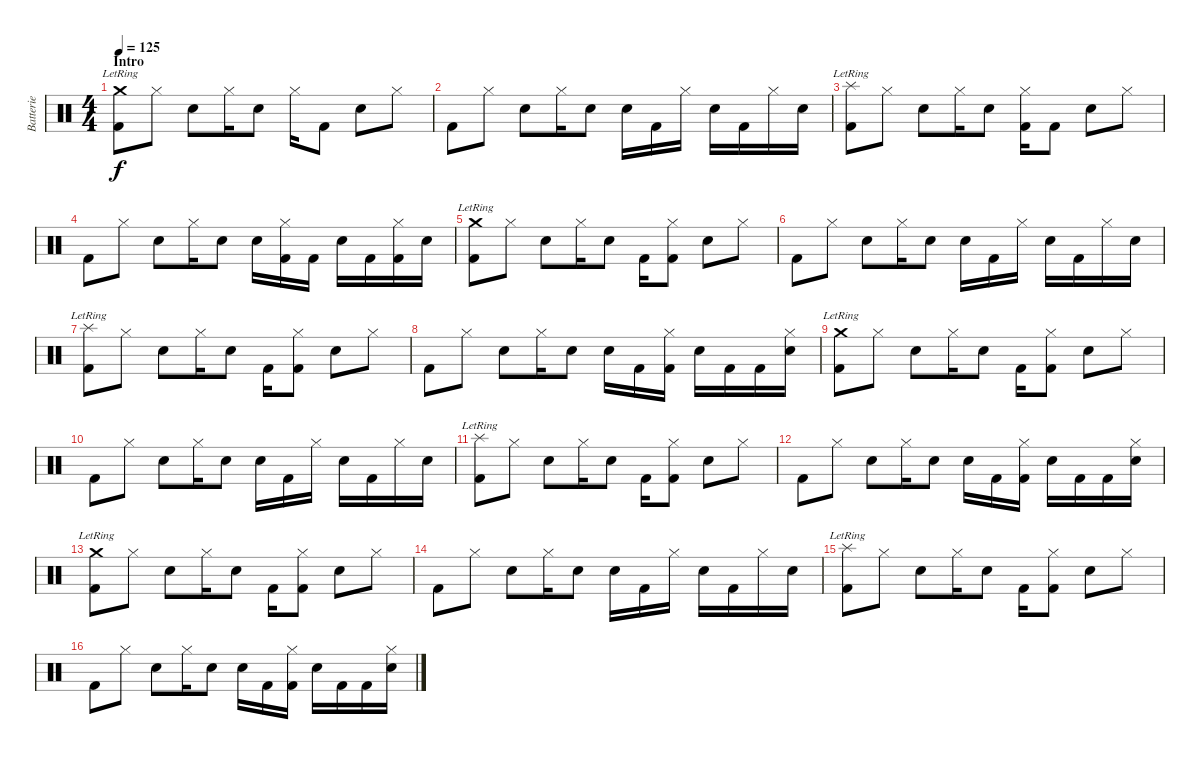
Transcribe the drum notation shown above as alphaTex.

\track ("Batterie" "Batterie") {instrument percussion}
\staff {score}
\articulation defaults
\ts (4 4)
\section ("" "Intro")
\tempo 125
\clef neutral
\ks c
("Crash medium (hit)"{lr} "Kick (hit) 2").8{dy f} "Hi-Hat (closed)".8 "Electric Snare (hit)".8 "Hi-Hat (closed)".16 "Electric Snare (hit)".8 "Hi-Hat (closed)".16 "Kick (hit) 2".8 "Electric Snare (hit)".8 "Hi-Hat (closed)".8 |
"Kick (hit) 2".8 "Hi-Hat (closed)".8 "Electric Snare (hit)".8 "Hi-Hat (closed)".16 "Electric Snare (hit)".8 "Electric Snare (hit)".16 "Kick (hit) 2".16 "Hi-Hat (closed)".16 "Electric Snare (hit)".16 "Kick (hit) 2".16 "Hi-Hat (closed)".16 "Electric Snare (hit)".16 |
("Splash (hit)"{lr} "Kick (hit) 2").8 "Hi-Hat (closed)".8 "Electric Snare (hit)".8 "Hi-Hat (closed)".16 "Electric Snare (hit)".8 ("Hi-Hat (closed)" "Kick (hit) 2").16 "Kick (hit) 2".8 "Electric Snare (hit)".8 "Hi-Hat (closed)".8 |
"Kick (hit) 2".8 "Hi-Hat (closed)".8 "Electric Snare (hit)".8 "Hi-Hat (closed)".16 "Electric Snare (hit)".8 "Electric Snare (hit)".16 ("Hi-Hat (closed)" "Kick (hit) 2").16 "Kick (hit) 2".16 "Electric Snare (hit)".16 "Kick (hit) 2".16 ("Hi-Hat (closed)" "Kick (hit) 2").16 "Electric Snare (hit)".16 |
("Crash medium (hit)"{lr} "Kick (hit) 2").8 "Hi-Hat (closed)".8 "Electric Snare (hit)".8 "Hi-Hat (closed)".16 "Electric Snare (hit)".8 "Kick (hit) 2".16 ("Hi-Hat (closed)" "Kick (hit) 2").8 "Electric Snare (hit)".8 "Hi-Hat (closed)".8 |
"Kick (hit) 2".8 "Hi-Hat (closed)".8 "Electric Snare (hit)".8 "Hi-Hat (closed)".16 "Electric Snare (hit)".8 "Electric Snare (hit)".16 "Kick (hit) 2".16 "Hi-Hat (closed)".16 "Electric Snare (hit)".16 "Kick (hit) 2".16 "Hi-Hat (closed)".16 "Electric Snare (hit)".16 |
("Splash (hit)"{lr} "Kick (hit) 2").8 "Hi-Hat (closed)".8 "Electric Snare (hit)".8 "Hi-Hat (closed)".16 "Electric Snare (hit)".8 "Kick (hit) 2".16 ("Hi-Hat (closed)" "Kick (hit) 2").8 "Electric Snare (hit)".8 "Hi-Hat (closed)".8 |
"Kick (hit) 2".8 "Hi-Hat (closed)".8 "Electric Snare (hit)".8 "Hi-Hat (closed)".16 "Electric Snare (hit)".8 "Electric Snare (hit)".16 "Kick (hit) 2".16 ("Hi-Hat (closed)" "Kick (hit) 2").16 "Electric Snare (hit)".16 "Kick (hit) 2".16 "Kick (hit) 2".16 ("Electric Snare (hit)" "Hi-Hat (closed)").16 |
("Crash medium (hit)"{lr} "Kick (hit) 2").8 "Hi-Hat (closed)".8 "Electric Snare (hit)".8 "Hi-Hat (closed)".16 "Electric Snare (hit)".8 "Kick (hit) 2".16 ("Hi-Hat (closed)" "Kick (hit) 2").8 "Electric Snare (hit)".8 "Hi-Hat (closed)".8 |
"Kick (hit) 2".8 "Hi-Hat (closed)".8 "Electric Snare (hit)".8 "Hi-Hat (closed)".16 "Electric Snare (hit)".8 "Electric Snare (hit)".16 "Kick (hit) 2".16 "Hi-Hat (closed)".16 "Electric Snare (hit)".16 "Kick (hit) 2".16 "Hi-Hat (closed)".16 "Electric Snare (hit)".16 |
("Splash (hit)"{lr} "Kick (hit) 2").8 "Hi-Hat (closed)".8 "Electric Snare (hit)".8 "Hi-Hat (closed)".16 "Electric Snare (hit)".8 "Kick (hit) 2".16 ("Hi-Hat (closed)" "Kick (hit) 2").8 "Electric Snare (hit)".8 "Hi-Hat (closed)".8 |
"Kick (hit) 2".8 "Hi-Hat (closed)".8 "Electric Snare (hit)".8 "Hi-Hat (closed)".16 "Electric Snare (hit)".8 "Electric Snare (hit)".16 "Kick (hit) 2".16 ("Hi-Hat (closed)" "Kick (hit) 2").16 "Electric Snare (hit)".16 "Kick (hit) 2".16 "Kick (hit) 2".16 ("Electric Snare (hit)" "Hi-Hat (closed)").16 |
("Crash medium (hit)"{lr} "Kick (hit) 2").8 "Hi-Hat (closed)".8 "Electric Snare (hit)".8 "Hi-Hat (closed)".16 "Electric Snare (hit)".8 "Kick (hit) 2".16 ("Hi-Hat (closed)" "Kick (hit) 2").8 "Electric Snare (hit)".8 "Hi-Hat (closed)".8 |
"Kick (hit) 2".8 "Hi-Hat (closed)".8 "Electric Snare (hit)".8 "Hi-Hat (closed)".16 "Electric Snare (hit)".8 "Electric Snare (hit)".16 "Kick (hit) 2".16 "Hi-Hat (closed)".16 "Electric Snare (hit)".16 "Kick (hit) 2".16 "Hi-Hat (closed)".16 "Electric Snare (hit)".16 |
("Splash (hit)"{lr} "Kick (hit) 2").8 "Hi-Hat (closed)".8 "Electric Snare (hit)".8 "Hi-Hat (closed)".16 "Electric Snare (hit)".8 "Kick (hit) 2".16 ("Hi-Hat (closed)" "Kick (hit) 2").8 "Electric Snare (hit)".8 "Hi-Hat (closed)".8 |
"Kick (hit) 2".8 "Hi-Hat (closed)".8 "Electric Snare (hit)".8 "Hi-Hat (closed)".16 "Electric Snare (hit)".8 "Electric Snare (hit)".16 "Kick (hit) 2".16 ("Hi-Hat (closed)" "Kick (hit) 2").16 "Electric Snare (hit)".16 "Kick (hit) 2".16 "Kick (hit) 2".16 ("Electric Snare (hit)" "Hi-Hat (closed)").16
